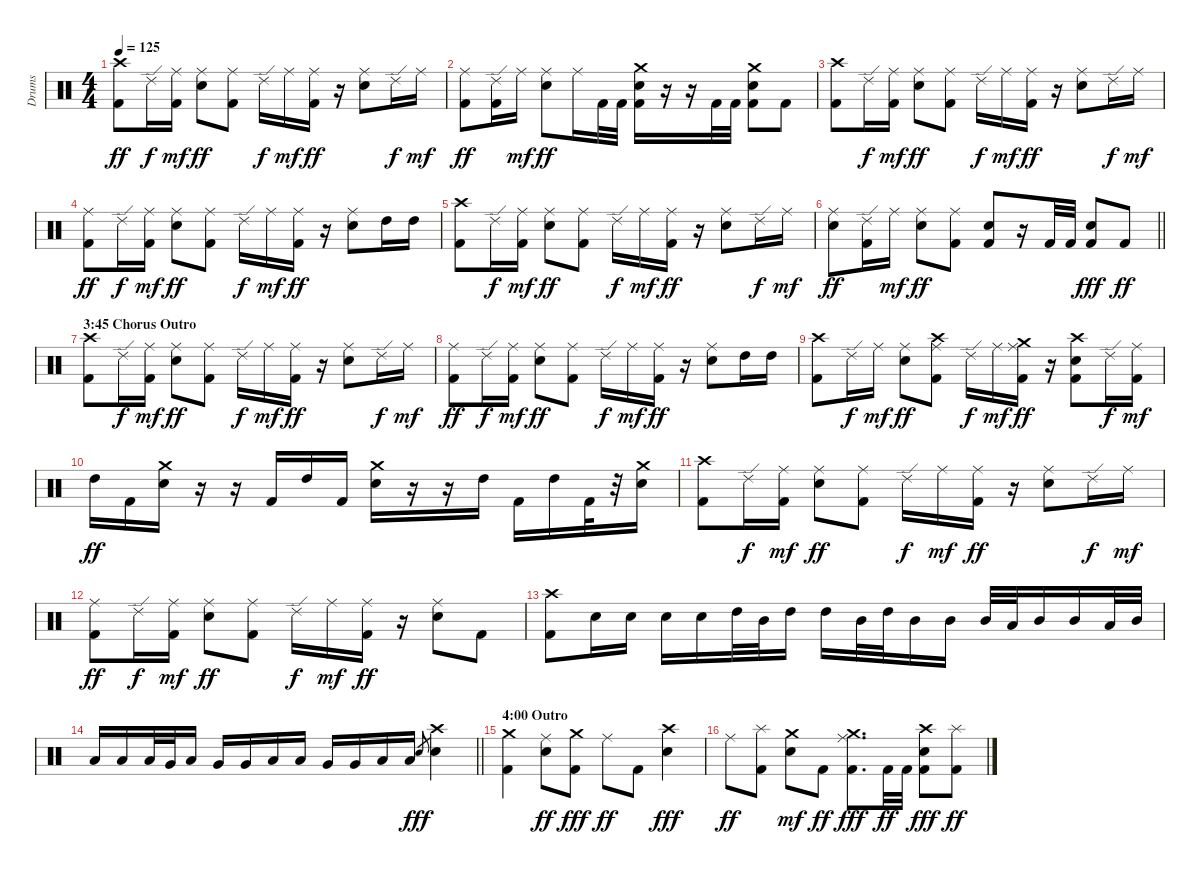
\track ("Drums" "Drums") {instrument percussion}
\staff {score}
\articulation defaults
\ts (4 4)
\tempo 125
\clef neutral
\ks c
("Kick (hit) 2" "Crash high (hit)").8{dy ff} "Ride (edge) 2".16{dy f} ("Kick (hit) 2" "Ride (middle)").16{dy mf} ("Electric Snare (hit)" "Ride (middle)").8{dy ff} ("Kick (hit) 2" "Ride (middle)").8 "Ride (edge) 2".16{dy f} "Ride (middle)".16{dy mf} ("Kick (hit) 2" "Ride (middle)").16{dy ff} r.16 ("Electric Snare (hit)" "Ride (middle)").8 "Ride (edge) 2".16{dy f} "Ride (middle)".16{dy mf} |
("Kick (hit) 2" "Ride (middle)").8{dy ff} ("Kick (hit) 2" "Ride (edge) 2").16 "Ride (middle)".16{dy mf} ("Electric Snare (hit)" "Ride (middle)").8{dy ff} "Ride (middle)".16 "Kick (hit) 2".32 "Kick (hit) 2".32 ("Kick (hit) 2" "Electric Snare (hit)" "Crash medium (hit)").16 r.16 r.16 "Kick (hit) 2".32 "Kick (hit) 2".32 ("Kick (hit) 2" "Electric Snare (hit)" "Crash medium (hit)").8 "Kick (hit) 2".8 |
("Kick (hit) 2" "Crash high (hit)").8 "Ride (edge) 2".16{dy f} ("Kick (hit) 2" "Ride (middle)").16{dy mf} ("Electric Snare (hit)" "Ride (middle)").8{dy ff} ("Kick (hit) 2" "Ride (middle)").8 "Ride (edge) 2".16{dy f} "Ride (middle)".16{dy mf} ("Kick (hit) 2" "Ride (middle)").16{dy ff} r.16 ("Electric Snare (hit)" "Ride (middle)").8 "Ride (edge) 2".16{dy f} "Ride (middle)".16{dy mf} |
("Kick (hit) 2" "Ride (middle)").8{dy ff} "Ride (edge) 2".16{dy f} ("Kick (hit) 2" "Ride (middle)").16{dy mf} ("Electric Snare (hit)" "Ride (middle)").8{dy ff} ("Kick (hit) 2" "Ride (middle)").8 "Ride (edge) 2".16{dy f} "Ride (middle)".16{dy mf} ("Kick (hit) 2" "Ride (middle)").16{dy ff} r.16 ("Electric Snare (hit)" "Ride (middle)").8 "High Tom (hit)".16 "High Tom (hit)".16 |
("Kick (hit) 2" "Crash high (hit)").8 "Ride (edge) 2".16{dy f} ("Kick (hit) 2" "Ride (middle)").16{dy mf} ("Electric Snare (hit)" "Ride (middle)").8{dy ff} ("Kick (hit) 2" "Ride (middle)").8 "Ride (edge) 2".16{dy f} "Ride (middle)".16{dy mf} ("Kick (hit) 2" "Ride (middle)").16{dy ff} r.16 ("Electric Snare (hit)" "Ride (middle)").8 "Ride (edge) 2".16{dy f} "Ride (middle)".16{dy mf} |
\barLineRight lightlight
("Electric Snare (hit)" "Ride (middle)").8{dy ff} ("Kick (hit) 2" "Ride (edge) 2").16 "Ride (middle)".16{dy mf} ("Electric Snare (hit)" "Ride (middle)").8{dy ff} ("Kick (hit) 2" "Ride (middle)").8 ("Kick (hit) 2" "Electric Snare (hit)").8 r.16 "Kick (hit) 2".32 "Kick (hit) 2".32 ("Kick (hit) 2" "Electric Snare (hit)").8{dy fff} "Kick (hit) 2".8{dy ff} |
\section ("" "3:45 Chorus Outro")
("Kick (hit) 2" "Crash high (hit)").8 "Ride (edge) 2".16{dy f} ("Kick (hit) 2" "Ride (middle)").16{dy mf} ("Electric Snare (hit)" "Ride (middle)").8{dy ff} ("Kick (hit) 2" "Ride (middle)").8 "Ride (edge) 2".16{dy f} "Ride (middle)".16{dy mf} ("Kick (hit) 2" "Ride (middle)").16{dy ff} r.16 ("Electric Snare (hit)" "Ride (middle)").8 "Ride (edge) 2".16{dy f} "Ride (middle)".16{dy mf} |
("Kick (hit) 2" "Ride (middle)").8{dy ff} "Ride (edge) 2".16{dy f} ("Kick (hit) 2" "Ride (middle)").16{dy mf} ("Electric Snare (hit)" "Ride (middle)").8{dy ff} ("Kick (hit) 2" "Ride (middle)").8 "Ride (edge) 2".16{dy f} "Ride (middle)".16{dy mf} ("Kick (hit) 2" "Ride (middle)").16{dy ff} r.16 ("Electric Snare (hit)" "Ride (middle)").8 "High Tom (hit)".16 "High Tom (hit)".16 |
("Kick (hit) 2" "Crash high (hit)").8 "Ride (edge) 2".16{dy f} "Ride (middle)".16{dy mf} ("Electric Snare (hit)" "Ride (middle)").8{dy ff} ("Kick (hit) 2" "Ride (middle)" "Crash high (hit)").8 "Ride (edge) 2".16{dy f} "Ride (middle)".16{dy mf} ("Kick (hit) 2" "Ride (middle)" "Crash medium (hit)").16{dy ff} r.16 ("Kick (hit) 2" "Electric Snare (hit)" "Crash high (hit)").8 "Ride (edge) 2".16{dy f} ("Kick (hit) 2" "Ride (middle)").16{dy mf} |
"High Tom (hit)".16{dy ff} "Kick (hit) 2".16 ("Electric Snare (hit)" "Crash medium (hit)").16 r.16 r.16 "Kick (hit) 2".16 "High Tom (hit)".16 "Kick (hit) 2".16 ("Electric Snare (hit)" "Crash medium (hit)").16 r.16 r.16 "High Tom (hit)".16 "Kick (hit) 2".16 "High Tom (hit)".16 "Kick (hit) 2".32 r.32 ("Electric Snare (hit)" "Crash medium (hit)").16 |
("Kick (hit) 2" "Crash high (hit)").8 "Ride (edge) 2".16{dy f} ("Kick (hit) 2" "Ride (middle)").16{dy mf} ("Electric Snare (hit)" "Ride (middle)").8{dy ff} ("Kick (hit) 2" "Ride (middle)").8 "Ride (edge) 2".16{dy f} "Ride (middle)".16{dy mf} ("Kick (hit) 2" "Ride (middle)").16{dy ff} r.16 ("Electric Snare (hit)" "Ride (middle)").8 "Ride (edge) 2".16{dy f} "Ride (middle)".16{dy mf} |
("Kick (hit) 2" "Ride (middle)").8{dy ff} "Ride (edge) 2".16{dy f} ("Kick (hit) 2" "Ride (middle)").16{dy mf} ("Electric Snare (hit)" "Ride (middle)").8{dy ff} ("Kick (hit) 2" "Ride (middle)").8 "Ride (edge) 2".16{dy f} "Ride (middle)".16{dy mf} ("Kick (hit) 2" "Ride (middle)").16{dy ff} r.16 ("Electric Snare (hit)" "Ride (middle)").8 "Kick (hit) 2".8 |
("Kick (hit) 2" "Crash high (hit)").8 "Electric Snare (hit)".16 "Electric Snare (hit)".16 "Electric Snare (hit)".16 "Electric Snare (hit)".16 "High Tom (hit)".32 "Mid Tom (hit)".32 "High Tom (hit)".16 "High Tom (hit)".16 "Mid Tom (hit)".32 "High Tom (hit)".32 "Mid Tom (hit)".16 "Mid Tom (hit)".16 "Mid Tom (hit)".32 "Low Tom (hit)".32 "Mid Tom (hit)".16 "Mid Tom (hit)".16 "Low Tom (hit)".32 "Mid Tom (hit)".32 |
\barLineRight lightlight "Low Tom (hit)".16 "Low Tom (hit)".16 "Low Tom (hit)".32 "Very Low Tom (hit)".32 "Low Tom (hit)".16 "Very Low Tom (hit)".16 "Very Low Tom (hit)".16 "Low Tom (hit)".16 "Low Tom (hit)".16 "Very Low Tom (hit)".16 "Very Low Tom (hit)".16 "Low Floor Tom (hit)".16 "Low Floor Tom (hit)".16 "Electric Snare (hit)".8{gr dy fff}
("Electric Snare (hit)" "Crash high (hit)").4 |
\section ("" "4:00 Outro")
("Kick (hit) 2" "Crash medium (hit)").4 ("Electric Snare (hit)" "Ride (middle)").8{dy ff} ("Kick (hit) 2" "Crash medium (hit)").8{dy fff} "Ride (middle)".8{dy ff} "Kick (hit) 2".8 ("Electric Snare (hit)" "Crash high (hit)").4{dy fff} |
"Ride (middle)".8{dy ff} ("Kick (hit) 2" "Splash (hit)").8 ("Electric Snare (hit)" "Crash medium (hit)").8{dy mf} "Kick (hit) 2".8{dy ff} ("Kick (hit) 2" "Ride (middle)" "Crash medium (hit)").8{d dy fff} "Kick (hit) 2".32{dy ff} "Kick (hit) 2".32 ("Kick (hit) 2" "Electric Snare (hit)" "Crash high (hit)").8{dy fff} ("Kick (hit) 2" "Splash (hit)").8{dy ff}
